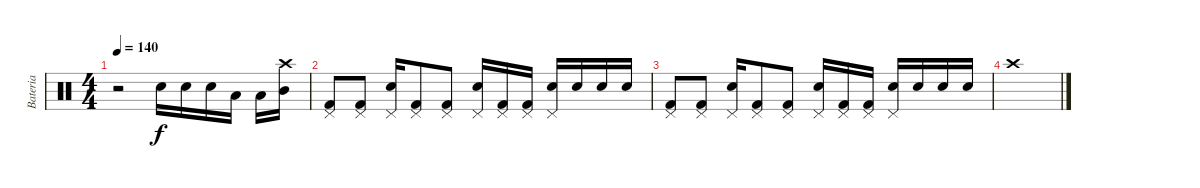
\track ("Bateria" "Bateria") {instrument percussion}
\staff {score}
\articulation defaults
\ts (4 4)
\tempo 140
\clef neutral
\ks c
r.2{dy f} "Snare (hit) 2".16 "Snare (hit) 2".16 "Snare (hit) 2".16 "Low Tom (hit)".16 "Low Tom (hit)".16 ("Crash high (hit)" "Mid Tom (hit)").16 |
("Kick (hit) 2" "Pedal Hi-Hat (hit)").8 ("Kick (hit) 2" "Pedal Hi-Hat (hit)").8 ("Snare (hit) 2" "Pedal Hi-Hat (hit)").16 ("Kick (hit) 2" "Pedal Hi-Hat (hit)").8 ("Kick (hit) 2" "Pedal Hi-Hat (hit)").8 ("Snare (hit) 2" "Pedal Hi-Hat (hit)").16 ("Kick (hit) 2" "Pedal Hi-Hat (hit)").16 ("Kick (hit) 2" "Pedal Hi-Hat (hit)").16 ("Snare (hit) 2" "Pedal Hi-Hat (hit)").16 "Snare (hit) 2".16 "Snare (hit) 2".16 "Snare (hit) 2".16 |
("Kick (hit) 2" "Pedal Hi-Hat (hit)").8 ("Kick (hit) 2" "Pedal Hi-Hat (hit)").8 ("Snare (hit) 2" "Pedal Hi-Hat (hit)").16 ("Kick (hit) 2" "Pedal Hi-Hat (hit)").8 ("Kick (hit) 2" "Pedal Hi-Hat (hit)").8 ("Snare (hit) 2" "Pedal Hi-Hat (hit)").16 ("Kick (hit) 2" "Pedal Hi-Hat (hit)").16 ("Kick (hit) 2" "Pedal Hi-Hat (hit)").16 ("Snare (hit) 2" "Pedal Hi-Hat (hit)").16 "Snare (hit) 2".16 "Snare (hit) 2".16 "Snare (hit) 2".16 |
"Crash high (hit)".1
